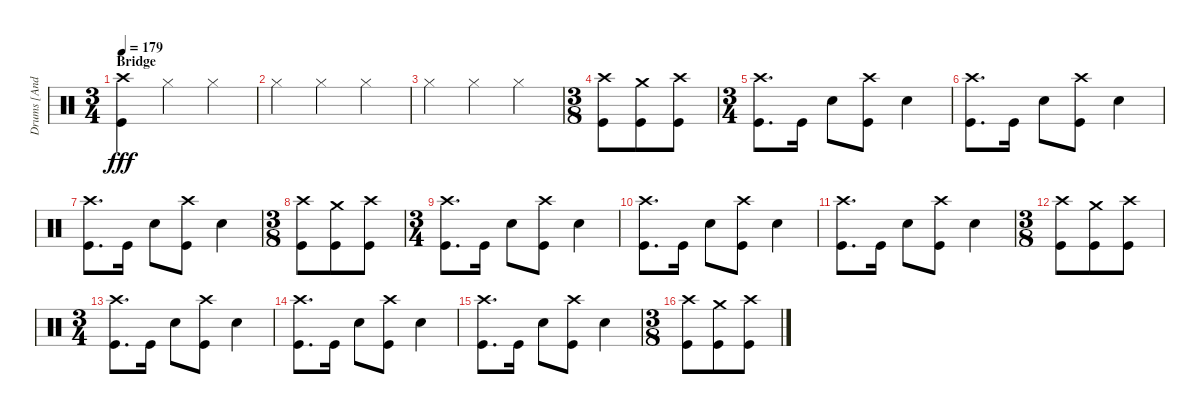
\track ("Drums [Andrew Forsman]" "Drums [And") {instrument percussion}
\staff {score}
\articulation defaults
\ts (3 4)
\section ("" "Bridge")
\tempo 179
\clef neutral
\ks c
("Crash high (hit)" "Kick (hit)").4{dy fff} "Hi-Hat (closed)".4 "Hi-Hat (closed)".4 |
"Hi-Hat (closed)".4 "Hi-Hat (closed)".4 "Hi-Hat (closed)".4 |
"Hi-Hat (closed)".4 "Hi-Hat (closed)".4 "Hi-Hat (closed)".4 |
\ts (3 8)
("Crash high (hit)" "Kick (hit)").8 ("Crash medium (hit)" "Kick (hit)").8 ("Crash high (hit)" "Kick (hit)").8 |
\ts (3 4)
("Crash high (hit)" "Kick (hit)").8{d} "Kick (hit)".16 "Snare (hit) 2".8 ("Crash high (hit)" "Kick (hit)").8 "Snare (hit) 2".4 |
("Crash high (hit)" "Kick (hit)").8{d} "Kick (hit)".16 "Snare (hit) 2".8 ("Crash high (hit)" "Kick (hit)").8 "Snare (hit) 2".4 |
("Crash high (hit)" "Kick (hit)").8{d} "Kick (hit)".16 "Snare (hit) 2".8 ("Crash high (hit)" "Kick (hit)").8 "Snare (hit) 2".4 |
\ts (3 8)
("Crash high (hit)" "Kick (hit)").8 ("Crash medium (hit)" "Kick (hit)").8 ("Crash high (hit)" "Kick (hit)").8 |
\ts (3 4)
("Crash high (hit)" "Kick (hit)").8{d} "Kick (hit)".16 "Snare (hit) 2".8 ("Crash high (hit)" "Kick (hit)").8 "Snare (hit) 2".4 |
("Crash high (hit)" "Kick (hit)").8{d} "Kick (hit)".16 "Snare (hit) 2".8 ("Crash high (hit)" "Kick (hit)").8 "Snare (hit) 2".4 |
("Crash high (hit)" "Kick (hit)").8{d} "Kick (hit)".16 "Snare (hit) 2".8 ("Crash high (hit)" "Kick (hit)").8 "Snare (hit) 2".4 |
\ts (3 8)
("Crash high (hit)" "Kick (hit)").8 ("Crash medium (hit)" "Kick (hit)").8 ("Crash high (hit)" "Kick (hit)").8 |
\ts (3 4)
("Crash high (hit)" "Kick (hit)").8{d} "Kick (hit)".16 "Snare (hit) 2".8 ("Crash high (hit)" "Kick (hit)").8 "Snare (hit) 2".4 |
("Crash high (hit)" "Kick (hit)").8{d} "Kick (hit)".16 "Snare (hit) 2".8 ("Crash high (hit)" "Kick (hit)").8 "Snare (hit) 2".4 |
("Crash high (hit)" "Kick (hit)").8{d} "Kick (hit)".16 "Snare (hit) 2".8 ("Crash high (hit)" "Kick (hit)").8 "Snare (hit) 2".4 |
\ts (3 8)
("Crash high (hit)" "Kick (hit)").8 ("Crash medium (hit)" "Kick (hit)").8 ("Crash high (hit)" "Kick (hit)").8
